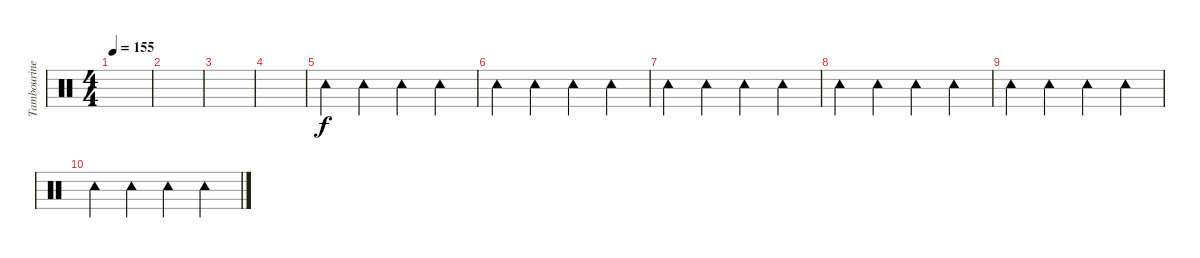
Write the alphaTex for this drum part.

\track ("Tambourine" "Tambourine") {instrument percussion}
\staff {score}
\articulation defaults
\ts (4 4)
\tempo 155
\clef neutral
\ks c
|
|
|
|
"Tambourine (hit)".4 "Tambourine (hit)".4 "Tambourine (hit)".4 "Tambourine (hit)".4 |
"Tambourine (hit)".4 "Tambourine (hit)".4 "Tambourine (hit)".4 "Tambourine (hit)".4 |
"Tambourine (hit)".4 "Tambourine (hit)".4 "Tambourine (hit)".4 "Tambourine (hit)".4 |
"Tambourine (hit)".4 "Tambourine (hit)".4 "Tambourine (hit)".4 "Tambourine (hit)".4 |
"Tambourine (hit)".4 "Tambourine (hit)".4 "Tambourine (hit)".4 "Tambourine (hit)".4 |
"Tambourine (hit)".4 "Tambourine (hit)".4 "Tambourine (hit)".4 "Tambourine (hit)".4
